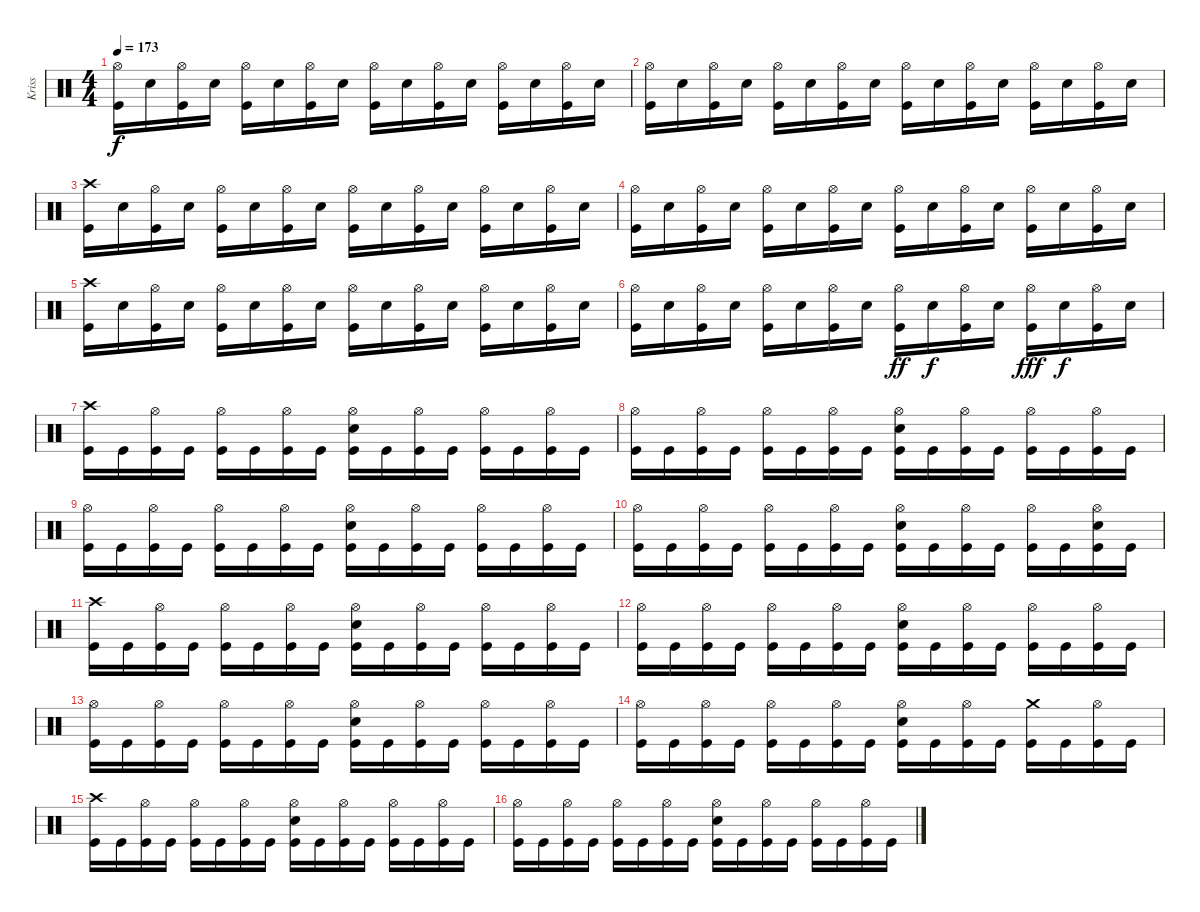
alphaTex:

\track ("Kriss" "Kriss") {instrument percussion}
\staff {score}
\articulation defaults
\ts (4 4)
\tempo 173
\clef neutral
\ks c
("Hi-Hat (open)" "Kick (hit)").16{dy f} "Snare (hit) 2".16 ("Hi-Hat (open)" "Kick (hit)").16 "Snare (hit) 2".16 ("Hi-Hat (open)" "Kick (hit)").16 "Snare (hit) 2".16 ("Hi-Hat (open)" "Kick (hit)").16 "Snare (hit) 2".16 ("Hi-Hat (open)" "Kick (hit)").16 "Snare (hit) 2".16 ("Hi-Hat (open)" "Kick (hit)").16 "Snare (hit) 2".16 ("Hi-Hat (open)" "Kick (hit)").16 "Snare (hit) 2".16 ("Hi-Hat (open)" "Kick (hit)").16 "Snare (hit) 2".16 |
("Hi-Hat (open)" "Kick (hit)").16 "Snare (hit) 2".16 ("Hi-Hat (open)" "Kick (hit)").16 "Snare (hit) 2".16 ("Hi-Hat (open)" "Kick (hit)").16 "Snare (hit) 2".16 ("Hi-Hat (open)" "Kick (hit)").16 "Snare (hit) 2".16 ("Hi-Hat (open)" "Kick (hit)").16 "Snare (hit) 2".16 ("Hi-Hat (open)" "Kick (hit)").16 "Snare (hit) 2".16 ("Hi-Hat (open)" "Kick (hit)").16 "Snare (hit) 2".16 ("Hi-Hat (open)" "Kick (hit)").16 "Snare (hit) 2".16 |
("Crash high (hit)" "Kick (hit)").16 "Snare (hit) 2".16 ("Hi-Hat (open)" "Kick (hit)").16 "Snare (hit) 2".16 ("Hi-Hat (open)" "Kick (hit)").16 "Snare (hit) 2".16 ("Hi-Hat (open)" "Kick (hit)").16 "Snare (hit) 2".16 ("Hi-Hat (open)" "Kick (hit)").16 "Snare (hit) 2".16 ("Hi-Hat (open)" "Kick (hit)").16 "Snare (hit) 2".16 ("Hi-Hat (open)" "Kick (hit)").16 "Snare (hit) 2".16 ("Hi-Hat (open)" "Kick (hit)").16 "Snare (hit) 2".16 |
("Hi-Hat (open)" "Kick (hit)").16 "Snare (hit) 2".16 ("Hi-Hat (open)" "Kick (hit)").16 "Snare (hit) 2".16 ("Hi-Hat (open)" "Kick (hit)").16 "Snare (hit) 2".16 ("Hi-Hat (open)" "Kick (hit)").16 "Snare (hit) 2".16 ("Hi-Hat (open)" "Kick (hit)").16 "Snare (hit) 2".16 ("Hi-Hat (open)" "Kick (hit)").16 "Snare (hit) 2".16 ("Hi-Hat (open)" "Kick (hit)").16 "Snare (hit) 2".16 ("Hi-Hat (open)" "Kick (hit)").16 "Snare (hit) 2".16 |
("Crash high (hit)" "Kick (hit)").16 "Snare (hit) 2".16 ("Hi-Hat (open)" "Kick (hit)").16 "Snare (hit) 2".16 ("Hi-Hat (open)" "Kick (hit)").16 "Snare (hit) 2".16 ("Hi-Hat (open)" "Kick (hit)").16 "Snare (hit) 2".16 ("Hi-Hat (open)" "Kick (hit)").16 "Snare (hit) 2".16 ("Hi-Hat (open)" "Kick (hit)").16 "Snare (hit) 2".16 ("Hi-Hat (open)" "Kick (hit)").16 "Snare (hit) 2".16 ("Hi-Hat (open)" "Kick (hit)").16 "Snare (hit) 2".16 |
("Hi-Hat (open)" "Kick (hit)").16 "Snare (hit) 2".16 ("Hi-Hat (open)" "Kick (hit)").16 "Snare (hit) 2".16 ("Hi-Hat (open)" "Kick (hit)").16 "Snare (hit) 2".16 ("Hi-Hat (open)" "Kick (hit)").16 "Snare (hit) 2".16 ("Hi-Hat (open)" "Kick (hit)").16{dy ff} "Snare (hit) 2".16{dy f} ("Hi-Hat (open)" "Kick (hit)").16 "Snare (hit) 2".16 ("Hi-Hat (open)" "Kick (hit)").16{dy fff} "Snare (hit) 2".16{dy f} ("Hi-Hat (open)" "Kick (hit)").16 "Snare (hit) 2".16 |
("Crash high (hit)" "Kick (hit)").16 "Kick (hit)".16 ("Hi-Hat (open)" "Kick (hit)").16 "Kick (hit)".16 ("Hi-Hat (open)" "Kick (hit)").16 "Kick (hit)".16 ("Hi-Hat (open)" "Kick (hit)").16 "Kick (hit)".16 ("Hi-Hat (open)" "Snare (hit) 2" "Kick (hit)").16 "Kick (hit)".16 ("Hi-Hat (open)" "Kick (hit)").16 "Kick (hit)".16 ("Hi-Hat (open)" "Kick (hit)").16 "Kick (hit)".16 ("Hi-Hat (open)" "Kick (hit)").16 "Kick (hit)".16 |
("Hi-Hat (open)" "Kick (hit)").16 "Kick (hit)".16 ("Hi-Hat (open)" "Kick (hit)").16 "Kick (hit)".16 ("Hi-Hat (open)" "Kick (hit)").16 "Kick (hit)".16 ("Hi-Hat (open)" "Kick (hit)").16 "Kick (hit)".16 ("Hi-Hat (open)" "Snare (hit) 2" "Kick (hit)").16 "Kick (hit)".16 ("Hi-Hat (open)" "Kick (hit)").16 "Kick (hit)".16 ("Hi-Hat (open)" "Kick (hit)").16 "Kick (hit)".16 ("Hi-Hat (open)" "Kick (hit)").16 "Kick (hit)".16 |
("Hi-Hat (open)" "Kick (hit)").16 "Kick (hit)".16 ("Hi-Hat (open)" "Kick (hit)").16 "Kick (hit)".16 ("Hi-Hat (open)" "Kick (hit)").16 "Kick (hit)".16 ("Hi-Hat (open)" "Kick (hit)").16 "Kick (hit)".16 ("Hi-Hat (open)" "Snare (hit) 2" "Kick (hit)").16 "Kick (hit)".16 ("Hi-Hat (open)" "Kick (hit)").16 "Kick (hit)".16 ("Hi-Hat (open)" "Kick (hit)").16 "Kick (hit)".16 ("Hi-Hat (open)" "Kick (hit)").16 "Kick (hit)".16 |
("Hi-Hat (open)" "Kick (hit)").16 "Kick (hit)".16 ("Hi-Hat (open)" "Kick (hit)").16 "Kick (hit)".16 ("Hi-Hat (open)" "Kick (hit)").16 "Kick (hit)".16 ("Hi-Hat (open)" "Kick (hit)").16 "Kick (hit)".16 ("Hi-Hat (open)" "Snare (hit) 2" "Kick (hit)").16 "Kick (hit)".16 ("Hi-Hat (open)" "Kick (hit)").16 "Kick (hit)".16 ("Hi-Hat (open)" "Kick (hit)").16 "Kick (hit)".16 ("Hi-Hat (open)" "Snare (hit) 2" "Kick (hit)").16 "Kick (hit)".16 |
("Crash high (hit)" "Kick (hit)").16 "Kick (hit)".16 ("Hi-Hat (open)" "Kick (hit)").16 "Kick (hit)".16 ("Hi-Hat (open)" "Kick (hit)").16 "Kick (hit)".16 ("Hi-Hat (open)" "Kick (hit)").16 "Kick (hit)".16 ("Hi-Hat (open)" "Snare (hit) 2" "Kick (hit)").16 "Kick (hit)".16 ("Hi-Hat (open)" "Kick (hit)").16 "Kick (hit)".16 ("Hi-Hat (open)" "Kick (hit)").16 "Kick (hit)".16 ("Hi-Hat (open)" "Kick (hit)").16 "Kick (hit)".16 |
("Hi-Hat (open)" "Kick (hit)").16 "Kick (hit)".16 ("Hi-Hat (open)" "Kick (hit)").16 "Kick (hit)".16 ("Hi-Hat (open)" "Kick (hit)").16 "Kick (hit)".16 ("Hi-Hat (open)" "Kick (hit)").16 "Kick (hit)".16 ("Hi-Hat (open)" "Snare (hit) 2" "Kick (hit)").16 "Kick (hit)".16 ("Hi-Hat (open)" "Kick (hit)").16 "Kick (hit)".16 ("Hi-Hat (open)" "Kick (hit)").16 "Kick (hit)".16 ("Hi-Hat (open)" "Kick (hit)").16 "Kick (hit)".16 |
("Hi-Hat (open)" "Kick (hit)").16 "Kick (hit)".16 ("Hi-Hat (open)" "Kick (hit)").16 "Kick (hit)".16 ("Hi-Hat (open)" "Kick (hit)").16 "Kick (hit)".16 ("Hi-Hat (open)" "Kick (hit)").16 "Kick (hit)".16 ("Hi-Hat (open)" "Snare (hit) 2" "Kick (hit)").16 "Kick (hit)".16 ("Hi-Hat (open)" "Kick (hit)").16 "Kick (hit)".16 ("Hi-Hat (open)" "Kick (hit)").16 "Kick (hit)".16 ("Hi-Hat (open)" "Kick (hit)").16 "Kick (hit)".16 |
("Hi-Hat (open)" "Kick (hit)").16 "Kick (hit)".16 ("Hi-Hat (open)" "Kick (hit)").16 "Kick (hit)".16 ("Hi-Hat (open)" "Kick (hit)").16 "Kick (hit)".16 ("Hi-Hat (open)" "Kick (hit)").16 "Kick (hit)".16 ("Hi-Hat (open)" "Snare (hit) 2" "Kick (hit)").16 "Kick (hit)".16 ("Hi-Hat (open)" "Kick (hit)").16 "Kick (hit)".16 ("Crash medium (hit)" "Kick (hit)").16 "Kick (hit)".16 ("Hi-Hat (open)" "Kick (hit)").16 "Kick (hit)".16 |
("Crash high (hit)" "Kick (hit)").16 "Kick (hit)".16 ("Hi-Hat (open)" "Kick (hit)").16 "Kick (hit)".16 ("Hi-Hat (open)" "Kick (hit)").16 "Kick (hit)".16 ("Hi-Hat (open)" "Kick (hit)").16 "Kick (hit)".16 ("Hi-Hat (open)" "Snare (hit) 2" "Kick (hit)").16 "Kick (hit)".16 ("Hi-Hat (open)" "Kick (hit)").16 "Kick (hit)".16 ("Hi-Hat (open)" "Kick (hit)").16 "Kick (hit)".16 ("Hi-Hat (open)" "Kick (hit)").16 "Kick (hit)".16 |
("Hi-Hat (open)" "Kick (hit)").16 "Kick (hit)".16 ("Hi-Hat (open)" "Kick (hit)").16 "Kick (hit)".16 ("Hi-Hat (open)" "Kick (hit)").16 "Kick (hit)".16 ("Hi-Hat (open)" "Kick (hit)").16 "Kick (hit)".16 ("Hi-Hat (open)" "Snare (hit) 2" "Kick (hit)").16 "Kick (hit)".16 ("Hi-Hat (open)" "Kick (hit)").16 "Kick (hit)".16 ("Hi-Hat (open)" "Kick (hit)").16 "Kick (hit)".16 ("Hi-Hat (open)" "Kick (hit)").16 "Kick (hit)".16
